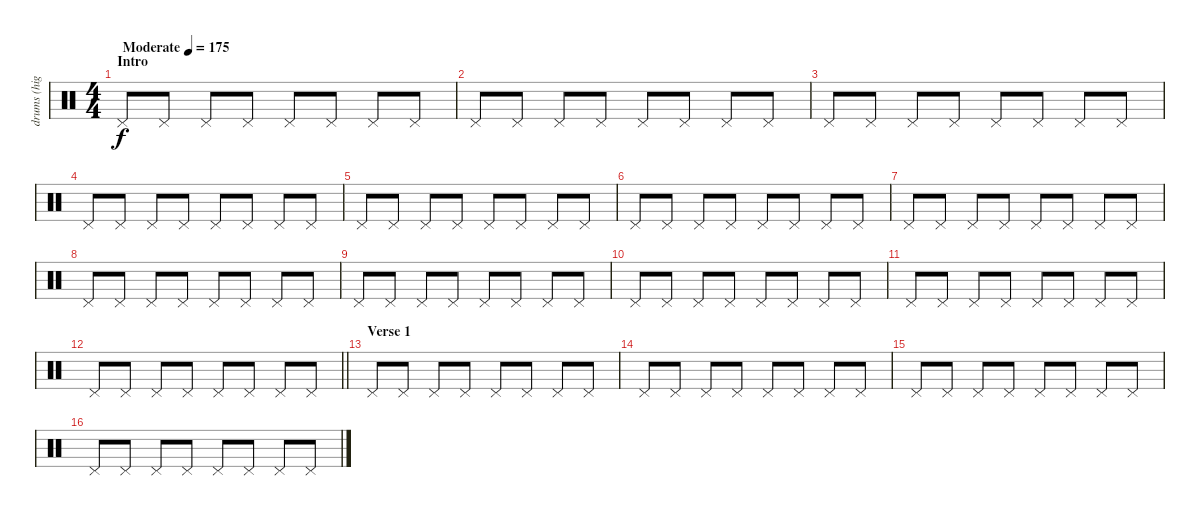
\track ("drums (highhat)" "drums (hig") {instrument percussion}
\staff {score}
\articulation defaults
\ts (4 4)
\section ("" "Intro")
\tempo (175 "Moderate")
\clef neutral
\ks c "Pedal Hi-Hat (hit)".8{dy f} "Pedal Hi-Hat (hit)".8 "Pedal Hi-Hat (hit)".8 "Pedal Hi-Hat (hit)".8 "Pedal Hi-Hat (hit)".8 "Pedal Hi-Hat (hit)".8 "Pedal Hi-Hat (hit)".8 "Pedal Hi-Hat (hit)".8
|
"Pedal Hi-Hat (hit)".8 "Pedal Hi-Hat (hit)".8 "Pedal Hi-Hat (hit)".8 "Pedal Hi-Hat (hit)".8 "Pedal Hi-Hat (hit)".8 "Pedal Hi-Hat (hit)".8 "Pedal Hi-Hat (hit)".8 "Pedal Hi-Hat (hit)".8 |
"Pedal Hi-Hat (hit)".8 "Pedal Hi-Hat (hit)".8 "Pedal Hi-Hat (hit)".8 "Pedal Hi-Hat (hit)".8 "Pedal Hi-Hat (hit)".8 "Pedal Hi-Hat (hit)".8 "Pedal Hi-Hat (hit)".8 "Pedal Hi-Hat (hit)".8 |
"Pedal Hi-Hat (hit)".8 "Pedal Hi-Hat (hit)".8 "Pedal Hi-Hat (hit)".8 "Pedal Hi-Hat (hit)".8 "Pedal Hi-Hat (hit)".8 "Pedal Hi-Hat (hit)".8 "Pedal Hi-Hat (hit)".8 "Pedal Hi-Hat (hit)".8 |
"Pedal Hi-Hat (hit)".8 "Pedal Hi-Hat (hit)".8 "Pedal Hi-Hat (hit)".8 "Pedal Hi-Hat (hit)".8 "Pedal Hi-Hat (hit)".8 "Pedal Hi-Hat (hit)".8 "Pedal Hi-Hat (hit)".8 "Pedal Hi-Hat (hit)".8 |
"Pedal Hi-Hat (hit)".8 "Pedal Hi-Hat (hit)".8 "Pedal Hi-Hat (hit)".8 "Pedal Hi-Hat (hit)".8 "Pedal Hi-Hat (hit)".8 "Pedal Hi-Hat (hit)".8 "Pedal Hi-Hat (hit)".8 "Pedal Hi-Hat (hit)".8 |
"Pedal Hi-Hat (hit)".8 "Pedal Hi-Hat (hit)".8 "Pedal Hi-Hat (hit)".8 "Pedal Hi-Hat (hit)".8 "Pedal Hi-Hat (hit)".8 "Pedal Hi-Hat (hit)".8 "Pedal Hi-Hat (hit)".8 "Pedal Hi-Hat (hit)".8 |
"Pedal Hi-Hat (hit)".8 "Pedal Hi-Hat (hit)".8 "Pedal Hi-Hat (hit)".8 "Pedal Hi-Hat (hit)".8 "Pedal Hi-Hat (hit)".8 "Pedal Hi-Hat (hit)".8 "Pedal Hi-Hat (hit)".8 "Pedal Hi-Hat (hit)".8 |
"Pedal Hi-Hat (hit)".8 "Pedal Hi-Hat (hit)".8 "Pedal Hi-Hat (hit)".8 "Pedal Hi-Hat (hit)".8 "Pedal Hi-Hat (hit)".8 "Pedal Hi-Hat (hit)".8 "Pedal Hi-Hat (hit)".8 "Pedal Hi-Hat (hit)".8 |
"Pedal Hi-Hat (hit)".8 "Pedal Hi-Hat (hit)".8 "Pedal Hi-Hat (hit)".8 "Pedal Hi-Hat (hit)".8 "Pedal Hi-Hat (hit)".8 "Pedal Hi-Hat (hit)".8 "Pedal Hi-Hat (hit)".8 "Pedal Hi-Hat (hit)".8 |
"Pedal Hi-Hat (hit)".8 "Pedal Hi-Hat (hit)".8 "Pedal Hi-Hat (hit)".8 "Pedal Hi-Hat (hit)".8 "Pedal Hi-Hat (hit)".8 "Pedal Hi-Hat (hit)".8 "Pedal Hi-Hat (hit)".8 "Pedal Hi-Hat (hit)".8 |
\barLineRight lightlight "Pedal Hi-Hat (hit)".8 "Pedal Hi-Hat (hit)".8 "Pedal Hi-Hat (hit)".8 "Pedal Hi-Hat (hit)".8 "Pedal Hi-Hat (hit)".8 "Pedal Hi-Hat (hit)".8 "Pedal Hi-Hat (hit)".8 "Pedal Hi-Hat (hit)".8
|
\section ("" "Verse 1")
"Pedal Hi-Hat (hit)".8 "Pedal Hi-Hat (hit)".8 "Pedal Hi-Hat (hit)".8 "Pedal Hi-Hat (hit)".8 "Pedal Hi-Hat (hit)".8 "Pedal Hi-Hat (hit)".8 "Pedal Hi-Hat (hit)".8 "Pedal Hi-Hat (hit)".8 |
"Pedal Hi-Hat (hit)".8 "Pedal Hi-Hat (hit)".8 "Pedal Hi-Hat (hit)".8 "Pedal Hi-Hat (hit)".8 "Pedal Hi-Hat (hit)".8 "Pedal Hi-Hat (hit)".8 "Pedal Hi-Hat (hit)".8 "Pedal Hi-Hat (hit)".8 |
"Pedal Hi-Hat (hit)".8 "Pedal Hi-Hat (hit)".8 "Pedal Hi-Hat (hit)".8 "Pedal Hi-Hat (hit)".8 "Pedal Hi-Hat (hit)".8 "Pedal Hi-Hat (hit)".8 "Pedal Hi-Hat (hit)".8 "Pedal Hi-Hat (hit)".8 |
"Pedal Hi-Hat (hit)".8 "Pedal Hi-Hat (hit)".8 "Pedal Hi-Hat (hit)".8 "Pedal Hi-Hat (hit)".8 "Pedal Hi-Hat (hit)".8 "Pedal Hi-Hat (hit)".8 "Pedal Hi-Hat (hit)".8 "Pedal Hi-Hat (hit)".8
